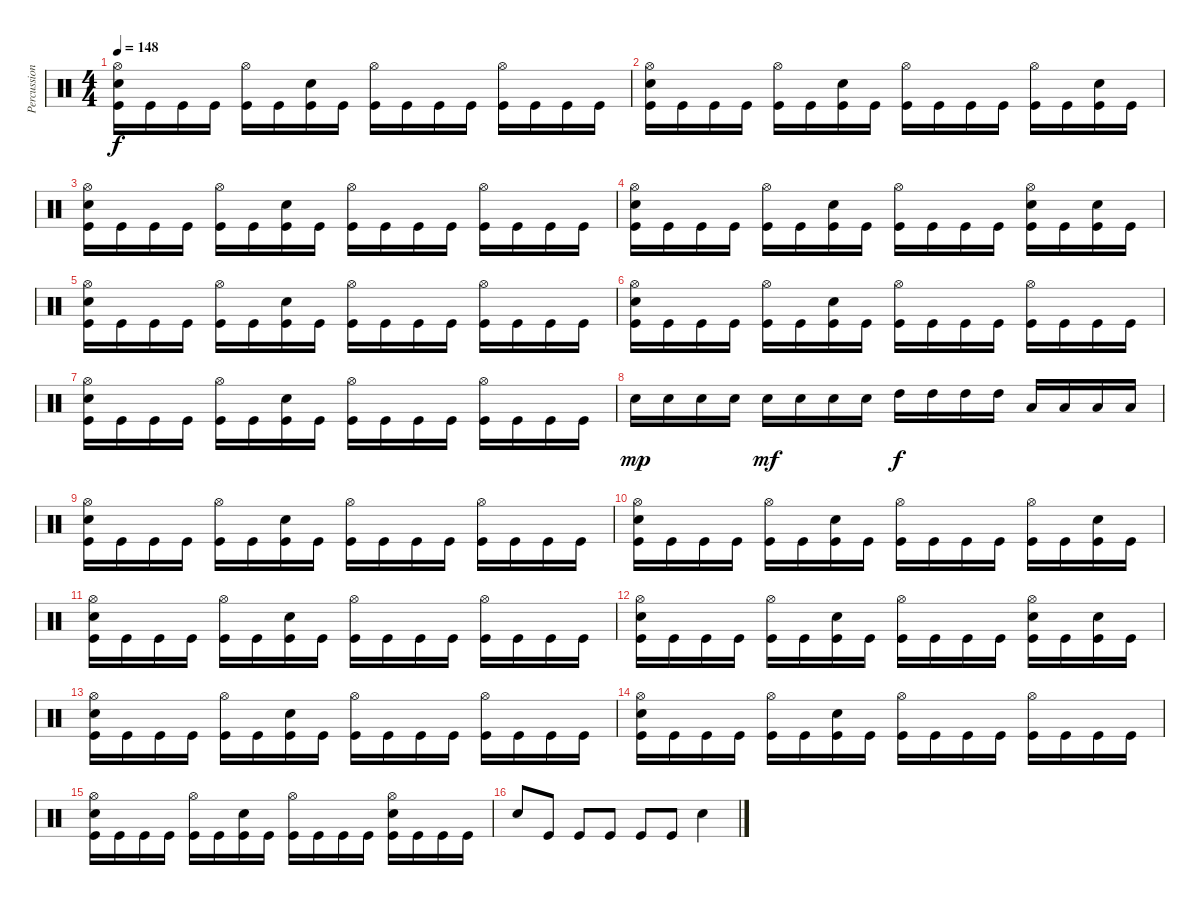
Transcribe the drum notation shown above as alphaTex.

\track ("Percussion" "Percussion") {instrument percussion}
\staff {score}
\articulation defaults
\ts (4 4)
\tempo 148
\clef neutral
\ks c
("Hi-Hat (open)" "Electric Snare (hit)" "Kick (hit)").16{dy f} "Kick (hit)".16 "Kick (hit)".16 "Kick (hit)".16 ("Hi-Hat (open)" "Kick (hit)").16 "Kick (hit)".16 ("Electric Snare (hit)" "Kick (hit)").16 "Kick (hit)".16 ("Hi-Hat (open)" "Kick (hit)").16 "Kick (hit)".16 "Kick (hit)".16 "Kick (hit)".16 ("Hi-Hat (open)" "Kick (hit)").16 "Kick (hit)".16 "Kick (hit)".16 "Kick (hit)".16 |
("Hi-Hat (open)" "Electric Snare (hit)" "Kick (hit)").16 "Kick (hit)".16 "Kick (hit)".16 "Kick (hit)".16 ("Hi-Hat (open)" "Kick (hit)").16 "Kick (hit)".16 ("Electric Snare (hit)" "Kick (hit)").16 "Kick (hit)".16 ("Hi-Hat (open)" "Kick (hit)").16 "Kick (hit)".16 "Kick (hit)".16 "Kick (hit)".16 ("Hi-Hat (open)" "Kick (hit)").16 "Kick (hit)".16 ("Electric Snare (hit)" "Kick (hit)").16 "Kick (hit)".16 |
("Hi-Hat (open)" "Electric Snare (hit)" "Kick (hit)").16 "Kick (hit)".16 "Kick (hit)".16 "Kick (hit)".16 ("Hi-Hat (open)" "Kick (hit)").16 "Kick (hit)".16 ("Electric Snare (hit)" "Kick (hit)").16 "Kick (hit)".16 ("Hi-Hat (open)" "Kick (hit)").16 "Kick (hit)".16 "Kick (hit)".16 "Kick (hit)".16 ("Hi-Hat (open)" "Kick (hit)").16 "Kick (hit)".16 "Kick (hit)".16 "Kick (hit)".16 |
("Hi-Hat (open)" "Electric Snare (hit)" "Kick (hit)").16 "Kick (hit)".16 "Kick (hit)".16 "Kick (hit)".16 ("Hi-Hat (open)" "Kick (hit)").16 "Kick (hit)".16 ("Electric Snare (hit)" "Kick (hit)").16 "Kick (hit)".16 ("Hi-Hat (open)" "Kick (hit)").16 "Kick (hit)".16 "Kick (hit)".16 "Kick (hit)".16 ("Hi-Hat (open)" "Electric Snare (hit)" "Kick (hit)").16 "Kick (hit)".16 ("Electric Snare (hit)" "Kick (hit)").16 "Kick (hit)".16 |
("Hi-Hat (open)" "Electric Snare (hit)" "Kick (hit)").16 "Kick (hit)".16 "Kick (hit)".16 "Kick (hit)".16 ("Hi-Hat (open)" "Kick (hit)").16 "Kick (hit)".16 ("Electric Snare (hit)" "Kick (hit)").16 "Kick (hit)".16 ("Hi-Hat (open)" "Kick (hit)").16 "Kick (hit)".16 "Kick (hit)".16 "Kick (hit)".16 ("Hi-Hat (open)" "Kick (hit)").16 "Kick (hit)".16 "Kick (hit)".16 "Kick (hit)".16 |
("Hi-Hat (open)" "Electric Snare (hit)" "Kick (hit)").16 "Kick (hit)".16 "Kick (hit)".16 "Kick (hit)".16 ("Hi-Hat (open)" "Kick (hit)").16 "Kick (hit)".16 ("Electric Snare (hit)" "Kick (hit)").16 "Kick (hit)".16 ("Hi-Hat (open)" "Kick (hit)").16 "Kick (hit)".16 "Kick (hit)".16 "Kick (hit)".16 ("Hi-Hat (open)" "Kick (hit)").16 "Kick (hit)".16 "Kick (hit)".16 "Kick (hit)".16 |
("Hi-Hat (open)" "Electric Snare (hit)" "Kick (hit)").16 "Kick (hit)".16 "Kick (hit)".16 "Kick (hit)".16 ("Hi-Hat (open)" "Kick (hit)").16 "Kick (hit)".16 ("Electric Snare (hit)" "Kick (hit)").16 "Kick (hit)".16 ("Hi-Hat (open)" "Kick (hit)").16 "Kick (hit)".16 "Kick (hit)".16 "Kick (hit)".16 ("Hi-Hat (open)" "Kick (hit)").16 "Kick (hit)".16 "Kick (hit)".16 "Kick (hit)".16 |
"Electric Snare (hit)".16{dy mp} "Electric Snare (hit)".16 "Electric Snare (hit)".16 "Electric Snare (hit)".16 "Electric Snare (hit)".16{dy mf} "Electric Snare (hit)".16 "Electric Snare (hit)".16 "Electric Snare (hit)".16 "High Tom (hit)".16{dy f} "High Tom (hit)".16 "High Tom (hit)".16 "High Tom (hit)".16 "Low Floor Tom (hit)".16 "Low Floor Tom (hit)".16 "Low Floor Tom (hit)".16 "Low Floor Tom (hit)".16 |
("Hi-Hat (open)" "Electric Snare (hit)" "Kick (hit)").16 "Kick (hit)".16 "Kick (hit)".16 "Kick (hit)".16 ("Hi-Hat (open)" "Kick (hit)").16 "Kick (hit)".16 ("Electric Snare (hit)" "Kick (hit)").16 "Kick (hit)".16 ("Hi-Hat (open)" "Kick (hit)").16 "Kick (hit)".16 "Kick (hit)".16 "Kick (hit)".16 ("Hi-Hat (open)" "Kick (hit)").16 "Kick (hit)".16 "Kick (hit)".16 "Kick (hit)".16 |
("Hi-Hat (open)" "Electric Snare (hit)" "Kick (hit)").16 "Kick (hit)".16 "Kick (hit)".16 "Kick (hit)".16 ("Hi-Hat (open)" "Kick (hit)").16 "Kick (hit)".16 ("Electric Snare (hit)" "Kick (hit)").16 "Kick (hit)".16 ("Hi-Hat (open)" "Kick (hit)").16 "Kick (hit)".16 "Kick (hit)".16 "Kick (hit)".16 ("Hi-Hat (open)" "Kick (hit)").16 "Kick (hit)".16 ("Electric Snare (hit)" "Kick (hit)").16 "Kick (hit)".16 |
("Hi-Hat (open)" "Electric Snare (hit)" "Kick (hit)").16 "Kick (hit)".16 "Kick (hit)".16 "Kick (hit)".16 ("Hi-Hat (open)" "Kick (hit)").16 "Kick (hit)".16 ("Electric Snare (hit)" "Kick (hit)").16 "Kick (hit)".16 ("Hi-Hat (open)" "Kick (hit)").16 "Kick (hit)".16 "Kick (hit)".16 "Kick (hit)".16 ("Hi-Hat (open)" "Kick (hit)").16 "Kick (hit)".16 "Kick (hit)".16 "Kick (hit)".16 |
("Hi-Hat (open)" "Electric Snare (hit)" "Kick (hit)").16 "Kick (hit)".16 "Kick (hit)".16 "Kick (hit)".16 ("Hi-Hat (open)" "Kick (hit)").16 "Kick (hit)".16 ("Electric Snare (hit)" "Kick (hit)").16 "Kick (hit)".16 ("Hi-Hat (open)" "Kick (hit)").16 "Kick (hit)".16 "Kick (hit)".16 "Kick (hit)".16 ("Hi-Hat (open)" "Electric Snare (hit)" "Kick (hit)").16 "Kick (hit)".16 ("Electric Snare (hit)" "Kick (hit)").16 "Kick (hit)".16 |
("Hi-Hat (open)" "Electric Snare (hit)" "Kick (hit)").16 "Kick (hit)".16 "Kick (hit)".16 "Kick (hit)".16 ("Hi-Hat (open)" "Kick (hit)").16 "Kick (hit)".16 ("Electric Snare (hit)" "Kick (hit)").16 "Kick (hit)".16 ("Hi-Hat (open)" "Kick (hit)").16 "Kick (hit)".16 "Kick (hit)".16 "Kick (hit)".16 ("Hi-Hat (open)" "Kick (hit)").16 "Kick (hit)".16 "Kick (hit)".16 "Kick (hit)".16 |
("Hi-Hat (open)" "Electric Snare (hit)" "Kick (hit)").16 "Kick (hit)".16 "Kick (hit)".16 "Kick (hit)".16 ("Hi-Hat (open)" "Kick (hit)").16 "Kick (hit)".16 ("Electric Snare (hit)" "Kick (hit)").16 "Kick (hit)".16 ("Hi-Hat (open)" "Kick (hit)").16 "Kick (hit)".16 "Kick (hit)".16 "Kick (hit)".16 ("Hi-Hat (open)" "Kick (hit)").16 "Kick (hit)".16 "Kick (hit)".16 "Kick (hit)".16 |
("Hi-Hat (open)" "Electric Snare (hit)" "Kick (hit)").16 "Kick (hit)".16 "Kick (hit)".16 "Kick (hit)".16 ("Hi-Hat (open)" "Kick (hit)").16 "Kick (hit)".16 ("Electric Snare (hit)" "Kick (hit)").16 "Kick (hit)".16 ("Hi-Hat (open)" "Kick (hit)").16 "Kick (hit)".16 "Kick (hit)".16 "Kick (hit)".16 ("Hi-Hat (open)" "Electric Snare (hit)" "Kick (hit)").16 "Kick (hit)".16 "Kick (hit)".16 "Kick (hit)".16 |
"Electric Snare (hit)".8 "Kick (hit)".8 "Kick (hit)".8 "Kick (hit)".8 "Kick (hit)".8 "Kick (hit)".8 "Electric Snare (hit)".4
